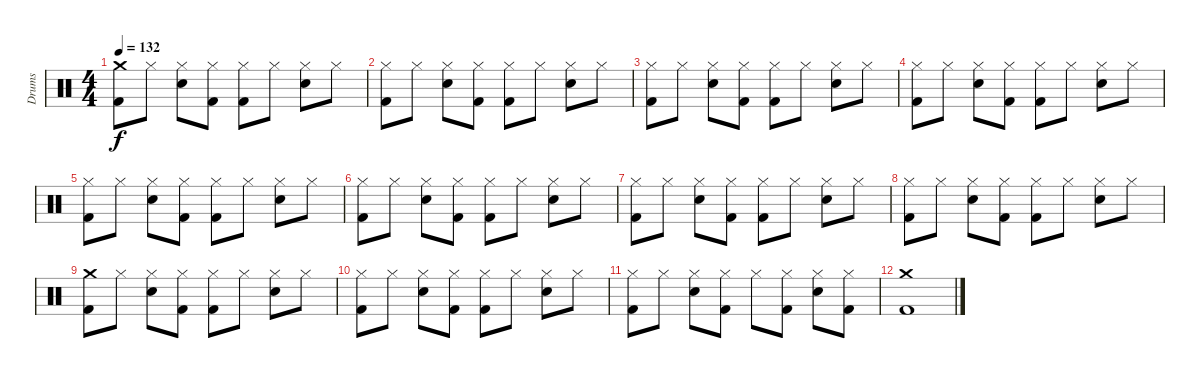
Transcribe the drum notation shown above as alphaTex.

\track ("Drums" "Drums") {instrument percussion}
\staff {score}
\articulation defaults
\ts (4 4)
\tempo 132
\clef neutral
\ks c
("Crash medium (hit)" "Kick (hit) 2").8{dy f} "Hi-Hat (closed)".8 ("Hi-Hat (closed)" "Snare (hit) 2").8 ("Hi-Hat (closed)" "Kick (hit) 2").8 ("Hi-Hat (closed)" "Kick (hit) 2").8 "Hi-Hat (closed)".8 ("Hi-Hat (closed)" "Snare (hit) 2").8 "Hi-Hat (closed)".8 |
("Hi-Hat (closed)" "Kick (hit) 2").8 "Hi-Hat (closed)".8 ("Hi-Hat (closed)" "Snare (hit) 2").8 ("Hi-Hat (closed)" "Kick (hit) 2").8 ("Hi-Hat (closed)" "Kick (hit) 2").8 "Hi-Hat (closed)".8 ("Hi-Hat (closed)" "Snare (hit) 2").8 "Hi-Hat (closed)".8 |
("Hi-Hat (closed)" "Kick (hit) 2").8 "Hi-Hat (closed)".8 ("Hi-Hat (closed)" "Snare (hit) 2").8 ("Hi-Hat (closed)" "Kick (hit) 2").8 ("Hi-Hat (closed)" "Kick (hit) 2").8 "Hi-Hat (closed)".8 ("Hi-Hat (closed)" "Snare (hit) 2").8 "Hi-Hat (closed)".8 |
("Hi-Hat (closed)" "Kick (hit) 2").8 "Hi-Hat (closed)".8 ("Hi-Hat (closed)" "Snare (hit) 2").8 ("Hi-Hat (closed)" "Kick (hit) 2").8 ("Hi-Hat (closed)" "Kick (hit) 2").8 "Hi-Hat (closed)".8 ("Hi-Hat (closed)" "Snare (hit) 2").8 "Hi-Hat (closed)".8 |
("Hi-Hat (closed)" "Kick (hit) 2").8 "Hi-Hat (closed)".8 ("Hi-Hat (closed)" "Snare (hit) 2").8 ("Hi-Hat (closed)" "Kick (hit) 2").8 ("Hi-Hat (closed)" "Kick (hit) 2").8 "Hi-Hat (closed)".8 ("Hi-Hat (closed)" "Snare (hit) 2").8 "Hi-Hat (closed)".8 |
("Hi-Hat (closed)" "Kick (hit) 2").8 "Hi-Hat (closed)".8 ("Hi-Hat (closed)" "Snare (hit) 2").8 ("Hi-Hat (closed)" "Kick (hit) 2").8 ("Hi-Hat (closed)" "Kick (hit) 2").8 "Hi-Hat (closed)".8 ("Hi-Hat (closed)" "Snare (hit) 2").8 "Hi-Hat (closed)".8 |
("Hi-Hat (closed)" "Kick (hit) 2").8 "Hi-Hat (closed)".8 ("Hi-Hat (closed)" "Snare (hit) 2").8 ("Hi-Hat (closed)" "Kick (hit) 2").8 ("Hi-Hat (closed)" "Kick (hit) 2").8 "Hi-Hat (closed)".8 ("Hi-Hat (closed)" "Snare (hit) 2").8 "Hi-Hat (closed)".8 |
("Hi-Hat (closed)" "Kick (hit) 2").8 "Hi-Hat (closed)".8 ("Hi-Hat (closed)" "Snare (hit) 2").8 ("Hi-Hat (closed)" "Kick (hit) 2").8 ("Hi-Hat (closed)" "Kick (hit) 2").8 "Hi-Hat (closed)".8 ("Hi-Hat (closed)" "Snare (hit) 2").8 "Hi-Hat (closed)".8 |
("Crash medium (hit)" "Kick (hit) 2").8 "Hi-Hat (closed)".8 ("Hi-Hat (closed)" "Snare (hit) 2").8 ("Hi-Hat (closed)" "Kick (hit) 2").8 ("Hi-Hat (closed)" "Kick (hit) 2").8 "Hi-Hat (closed)".8 ("Hi-Hat (closed)" "Snare (hit) 2").8 "Hi-Hat (closed)".8 |
("Hi-Hat (closed)" "Kick (hit) 2").8 "Hi-Hat (closed)".8 ("Hi-Hat (closed)" "Snare (hit) 2").8 ("Hi-Hat (closed)" "Kick (hit) 2").8 ("Hi-Hat (closed)" "Kick (hit) 2").8 "Hi-Hat (closed)".8 ("Hi-Hat (closed)" "Snare (hit) 2").8 "Hi-Hat (closed)".8 |
("Hi-Hat (closed)" "Kick (hit) 2").8 "Hi-Hat (closed)".8 ("Hi-Hat (closed)" "Snare (hit) 2").8 ("Hi-Hat (closed)" "Kick (hit) 2").8 "Hi-Hat (closed)".8 ("Hi-Hat (closed)" "Kick (hit) 2").8 ("Hi-Hat (closed)" "Snare (hit) 2").8 ("Hi-Hat (closed)" "Kick (hit) 2").8 |
("Crash medium (hit)" "Kick (hit) 2").1
